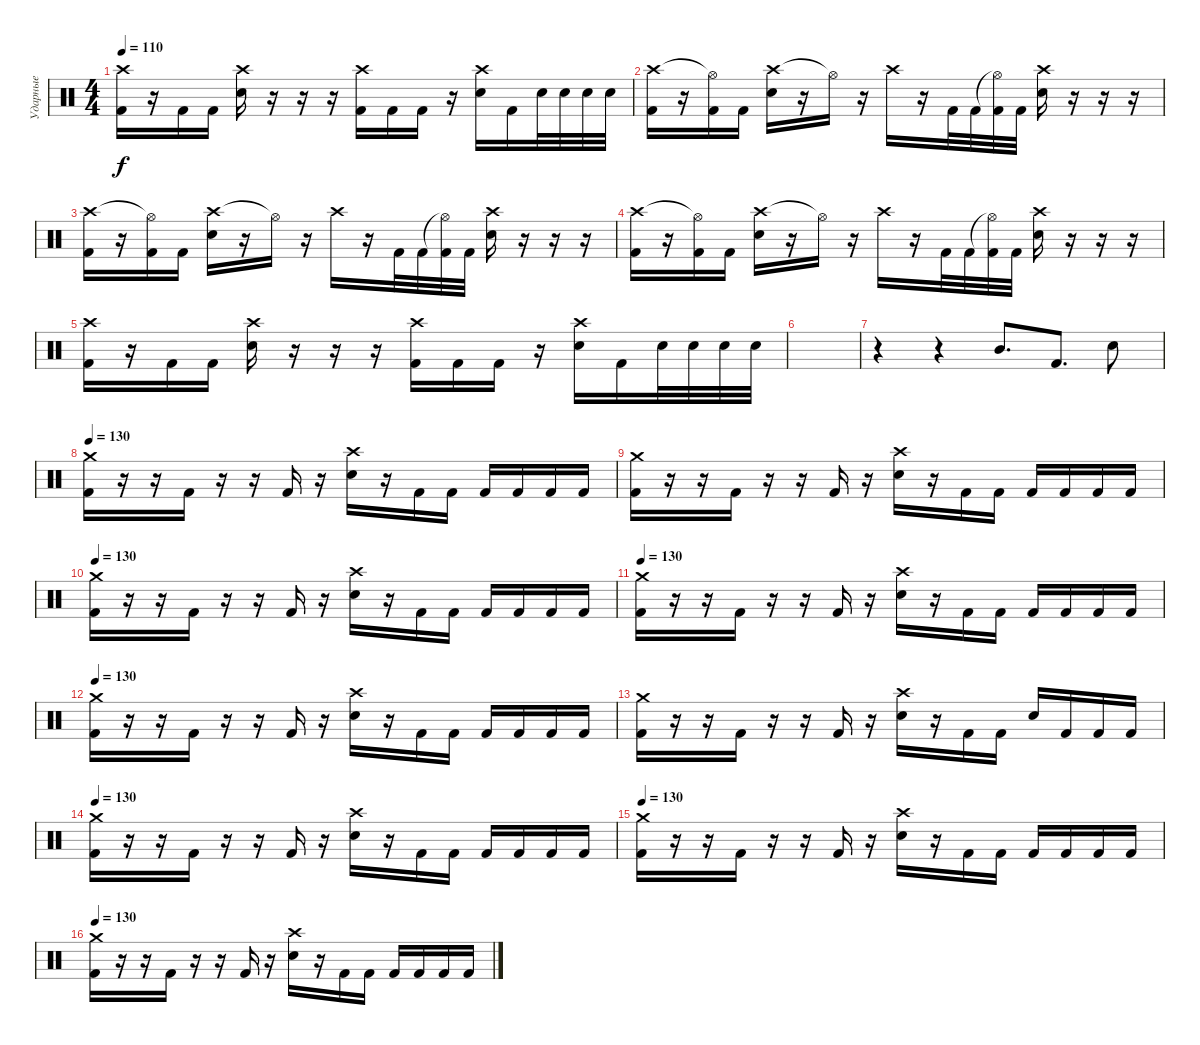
\track ("Ударные" "Ударные") {instrument percussion}
\staff {score}
\articulation defaults
\ts (4 4)
\tempo 110
\clef neutral
\ks c
("Crash high (hit)" "Kick (hit) 2").16{dy f} r.16 "Kick (hit) 2".16 "Kick (hit) 2".16 ("Crash high (hit)" "Snare (hit) 2").16 r.16 r.16 r.16 ("Crash high (hit)" "Kick (hit) 2").16 "Kick (hit) 2".16 "Kick (hit) 2".16 r.16 ("Crash high (hit)" "Snare (hit) 2").16 "Kick (hit) 2".16 "Snare (hit) 2".32 "Snare (hit) 2".32 "Snare (hit) 2".32 "Snare (hit) 2".32 |
("Crash high (hit)" "Kick (hit) 2").16 r.16 ("Hi-Hat (open)"{t} "Kick (hit) 2").16 "Kick (hit) 2".16 ("Crash high (hit)" "Snare (hit) 2").16 r.16 "Hi-Hat (open)"{t}.16 r.16 "Crash high (hit)".16 r.16 "Kick (hit) 2".32 "Kick (hit) 2".32 ("Hi-Hat (open)"{t} "Kick (hit) 2").32 "Kick (hit) 2".32 ("Crash high (hit)" "Snare (hit) 2").16 r.16 r.16 r.16 |
("Crash high (hit)" "Kick (hit) 2").16 r.16 ("Hi-Hat (open)"{t} "Kick (hit) 2").16 "Kick (hit) 2".16 ("Crash high (hit)" "Snare (hit) 2").16 r.16 "Hi-Hat (open)"{t}.16 r.16 "Crash high (hit)".16 r.16 "Kick (hit) 2".32 "Kick (hit) 2".32 ("Hi-Hat (open)"{t} "Kick (hit) 2").32 "Kick (hit) 2".32 ("Crash high (hit)" "Snare (hit) 2").16 r.16 r.16 r.16 |
("Crash high (hit)" "Kick (hit) 2").16 r.16 ("Hi-Hat (open)"{t} "Kick (hit) 2").16 "Kick (hit) 2".16 ("Crash high (hit)" "Snare (hit) 2").16 r.16 "Hi-Hat (open)"{t}.16 r.16 "Crash high (hit)".16 r.16 "Kick (hit) 2".32 "Kick (hit) 2".32 ("Hi-Hat (open)"{t} "Kick (hit) 2").32 "Kick (hit) 2".32 ("Crash high (hit)" "Snare (hit) 2").16 r.16 r.16 r.16 |
("Crash high (hit)" "Kick (hit) 2").16 r.16 "Kick (hit) 2".16 "Kick (hit) 2".16 ("Crash high (hit)" "Snare (hit) 2").16 r.16 r.16 r.16 ("Crash high (hit)" "Kick (hit) 2").16 "Kick (hit) 2".16 "Kick (hit) 2".16 r.16 ("Crash high (hit)" "Snare (hit) 2").16 "Kick (hit) 2".16 "Snare (hit) 2".32 "Snare (hit) 2".32 "Snare (hit) 2".32 "Snare (hit) 2".32 |
|
r.4 r.4 "Mid Tom (hit)".8{d} "Kick (hit) 2".8{d} "Snare (hit) 2".8 |
\tempo 125
\tempo 130
("Crash medium (hit)" "Kick (hit) 2").16 r.16 r.16 "Kick (hit) 2".16 r.16 r.16 "Kick (hit) 2".16 r.16 ("Crash high (hit)" "Snare (hit) 2").16 r.16 "Kick (hit) 2".16 "Kick (hit) 2".16 "Kick (hit) 2".16 "Kick (hit) 2".16 "Kick (hit) 2".16 "Kick (hit) 2".16 |
("Crash medium (hit)" "Kick (hit) 2").16 r.16 r.16 "Kick (hit) 2".16 r.16 r.16 "Kick (hit) 2".16 r.16 ("Crash high (hit)" "Snare (hit) 2").16 r.16 "Kick (hit) 2".16 "Kick (hit) 2".16 "Kick (hit) 2".16 "Kick (hit) 2".16 "Kick (hit) 2".16 "Kick (hit) 2".16 |
\tempo 130
("Crash medium (hit)" "Kick (hit) 2").16 r.16 r.16 "Kick (hit) 2".16 r.16 r.16 "Kick (hit) 2".16 r.16 ("Crash high (hit)" "Snare (hit) 2").16 r.16 "Kick (hit) 2".16 "Kick (hit) 2".16 "Kick (hit) 2".16 "Kick (hit) 2".16 "Kick (hit) 2".16 "Kick (hit) 2".16 |
\tempo 130
("Crash medium (hit)" "Kick (hit) 2").16 r.16 r.16 "Kick (hit) 2".16 r.16 r.16 "Kick (hit) 2".16 r.16 ("Crash high (hit)" "Snare (hit) 2").16 r.16 "Kick (hit) 2".16 "Kick (hit) 2".16 "Kick (hit) 2".16 "Kick (hit) 2".16 "Kick (hit) 2".16 "Kick (hit) 2".16 |
\tempo 130
("Crash medium (hit)" "Kick (hit) 2").16 r.16 r.16 "Kick (hit) 2".16 r.16 r.16 "Kick (hit) 2".16 r.16 ("Crash high (hit)" "Snare (hit) 2").16 r.16 "Kick (hit) 2".16 "Kick (hit) 2".16 "Kick (hit) 2".16 "Kick (hit) 2".16 "Kick (hit) 2".16 "Kick (hit) 2".16 |
("Crash medium (hit)" "Kick (hit) 2").16 r.16 r.16 "Kick (hit) 2".16 r.16 r.16 "Kick (hit) 2".16 r.16 ("Crash high (hit)" "Snare (hit) 2").16 r.16 "Kick (hit) 2".16 "Kick (hit) 2".16 "Snare (hit) 2".16 "Kick (hit) 2".16 "Kick (hit) 2".16 "Kick (hit) 2".16 |
\tempo 130
("Crash medium (hit)" "Kick (hit) 2").16 r.16 r.16 "Kick (hit) 2".16 r.16 r.16 "Kick (hit) 2".16 r.16 ("Crash high (hit)" "Snare (hit) 2").16 r.16 "Kick (hit) 2".16 "Kick (hit) 2".16 "Kick (hit) 2".16 "Kick (hit) 2".16 "Kick (hit) 2".16 "Kick (hit) 2".16 |
\tempo 130
("Crash medium (hit)" "Kick (hit) 2").16 r.16 r.16 "Kick (hit) 2".16 r.16 r.16 "Kick (hit) 2".16 r.16 ("Crash high (hit)" "Snare (hit) 2").16 r.16 "Kick (hit) 2".16 "Kick (hit) 2".16 "Kick (hit) 2".16 "Kick (hit) 2".16 "Kick (hit) 2".16 "Kick (hit) 2".16 |
\tempo 130
("Crash medium (hit)" "Kick (hit) 2").16 r.16 r.16 "Kick (hit) 2".16 r.16 r.16 "Kick (hit) 2".16 r.16 ("Crash high (hit)" "Snare (hit) 2").16 r.16 "Kick (hit) 2".16 "Kick (hit) 2".16 "Kick (hit) 2".16 "Kick (hit) 2".16 "Kick (hit) 2".16 "Kick (hit) 2".16
